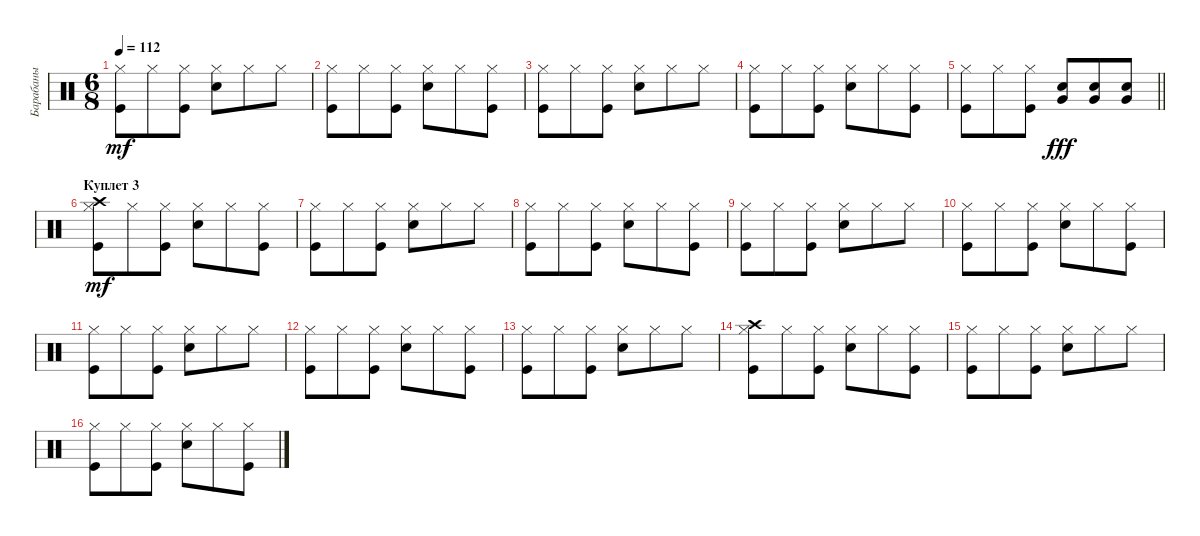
\track ("Барабаны" "Барабаны") {instrument percussion}
\staff {score}
\articulation defaults
\ts (6 8)
\tempo 112
\clef neutral
\ks c
("Kick (hit)" "Hi-Hat (closed)").8{dy mf} "Hi-Hat (closed)".8 ("Kick (hit)" "Hi-Hat (closed)").8 ("Snare (hit) 2" "Hi-Hat (closed)").8 "Hi-Hat (closed)".8 "Hi-Hat (closed)".8 |
("Kick (hit)" "Hi-Hat (closed)").8 "Hi-Hat (closed)".8 ("Kick (hit)" "Hi-Hat (closed)").8 ("Snare (hit) 2" "Hi-Hat (closed)").8 "Hi-Hat (closed)".8 ("Kick (hit)" "Hi-Hat (closed)").8 |
("Kick (hit)" "Hi-Hat (closed)").8 "Hi-Hat (closed)".8 ("Kick (hit)" "Hi-Hat (closed)").8 ("Snare (hit) 2" "Hi-Hat (closed)").8 "Hi-Hat (closed)".8 "Hi-Hat (closed)".8 |
("Kick (hit)" "Hi-Hat (closed)").8 "Hi-Hat (closed)".8 ("Kick (hit)" "Hi-Hat (closed)").8 ("Snare (hit) 2" "Hi-Hat (closed)").8 "Hi-Hat (closed)".8 ("Kick (hit)" "Hi-Hat (closed)").8 |
\barLineRight lightlight
("Kick (hit)" "Hi-Hat (closed)").8 "Hi-Hat (closed)".8 ("Kick (hit)" "Hi-Hat (closed)").8 ("Snare (hit) 2" "Very Low Tom (hit)").8{dy fff} ("Snare (hit) 2" "Very Low Tom (hit)").8 ("Snare (hit) 2" "Very Low Tom (hit)").8 |
\section ("" "Куплет 3")
("Kick (hit)" "Hi-Hat (closed)" "Crash high (hit)").8{dy mf} "Hi-Hat (closed)".8 ("Kick (hit)" "Hi-Hat (closed)").8 ("Snare (hit) 2" "Hi-Hat (closed)").8 "Hi-Hat (closed)".8 ("Kick (hit)" "Hi-Hat (closed)").8 |
("Kick (hit)" "Hi-Hat (closed)").8 "Hi-Hat (closed)".8 ("Kick (hit)" "Hi-Hat (closed)").8 ("Snare (hit) 2" "Hi-Hat (closed)").8 "Hi-Hat (closed)".8 "Hi-Hat (closed)".8 |
("Kick (hit)" "Hi-Hat (closed)").8 "Hi-Hat (closed)".8 ("Kick (hit)" "Hi-Hat (closed)").8 ("Snare (hit) 2" "Hi-Hat (closed)").8 "Hi-Hat (closed)".8 ("Kick (hit)" "Hi-Hat (closed)").8 |
("Kick (hit)" "Hi-Hat (closed)").8 "Hi-Hat (closed)".8 ("Kick (hit)" "Hi-Hat (closed)").8 ("Snare (hit) 2" "Hi-Hat (closed)").8 "Hi-Hat (closed)".8 "Hi-Hat (closed)".8 |
("Kick (hit)" "Hi-Hat (closed)").8 "Hi-Hat (closed)".8 ("Kick (hit)" "Hi-Hat (closed)").8 ("Snare (hit) 2" "Hi-Hat (closed)").8 "Hi-Hat (closed)".8 ("Kick (hit)" "Hi-Hat (closed)").8 |
("Kick (hit)" "Hi-Hat (closed)").8 "Hi-Hat (closed)".8 ("Kick (hit)" "Hi-Hat (closed)").8 ("Snare (hit) 2" "Hi-Hat (closed)").8 "Hi-Hat (closed)".8 "Hi-Hat (closed)".8 |
("Kick (hit)" "Hi-Hat (closed)").8 "Hi-Hat (closed)".8 ("Kick (hit)" "Hi-Hat (closed)").8 ("Snare (hit) 2" "Hi-Hat (closed)").8 "Hi-Hat (closed)".8 ("Kick (hit)" "Hi-Hat (closed)").8 |
("Kick (hit)" "Hi-Hat (closed)").8 "Hi-Hat (closed)".8 ("Kick (hit)" "Hi-Hat (closed)").8 ("Snare (hit) 2" "Hi-Hat (closed)").8 "Hi-Hat (closed)".8 "Hi-Hat (closed)".8 |
("Kick (hit)" "Hi-Hat (closed)" "Crash high (hit)").8 "Hi-Hat (closed)".8 ("Kick (hit)" "Hi-Hat (closed)").8 ("Snare (hit) 2" "Hi-Hat (closed)").8 "Hi-Hat (closed)".8 ("Kick (hit)" "Hi-Hat (closed)").8 |
("Kick (hit)" "Hi-Hat (closed)").8 "Hi-Hat (closed)".8 ("Kick (hit)" "Hi-Hat (closed)").8 ("Snare (hit) 2" "Hi-Hat (closed)").8 "Hi-Hat (closed)".8 "Hi-Hat (closed)".8 |
("Kick (hit)" "Hi-Hat (closed)").8 "Hi-Hat (closed)".8 ("Kick (hit)" "Hi-Hat (closed)").8 ("Snare (hit) 2" "Hi-Hat (closed)").8 "Hi-Hat (closed)".8 ("Kick (hit)" "Hi-Hat (closed)").8
